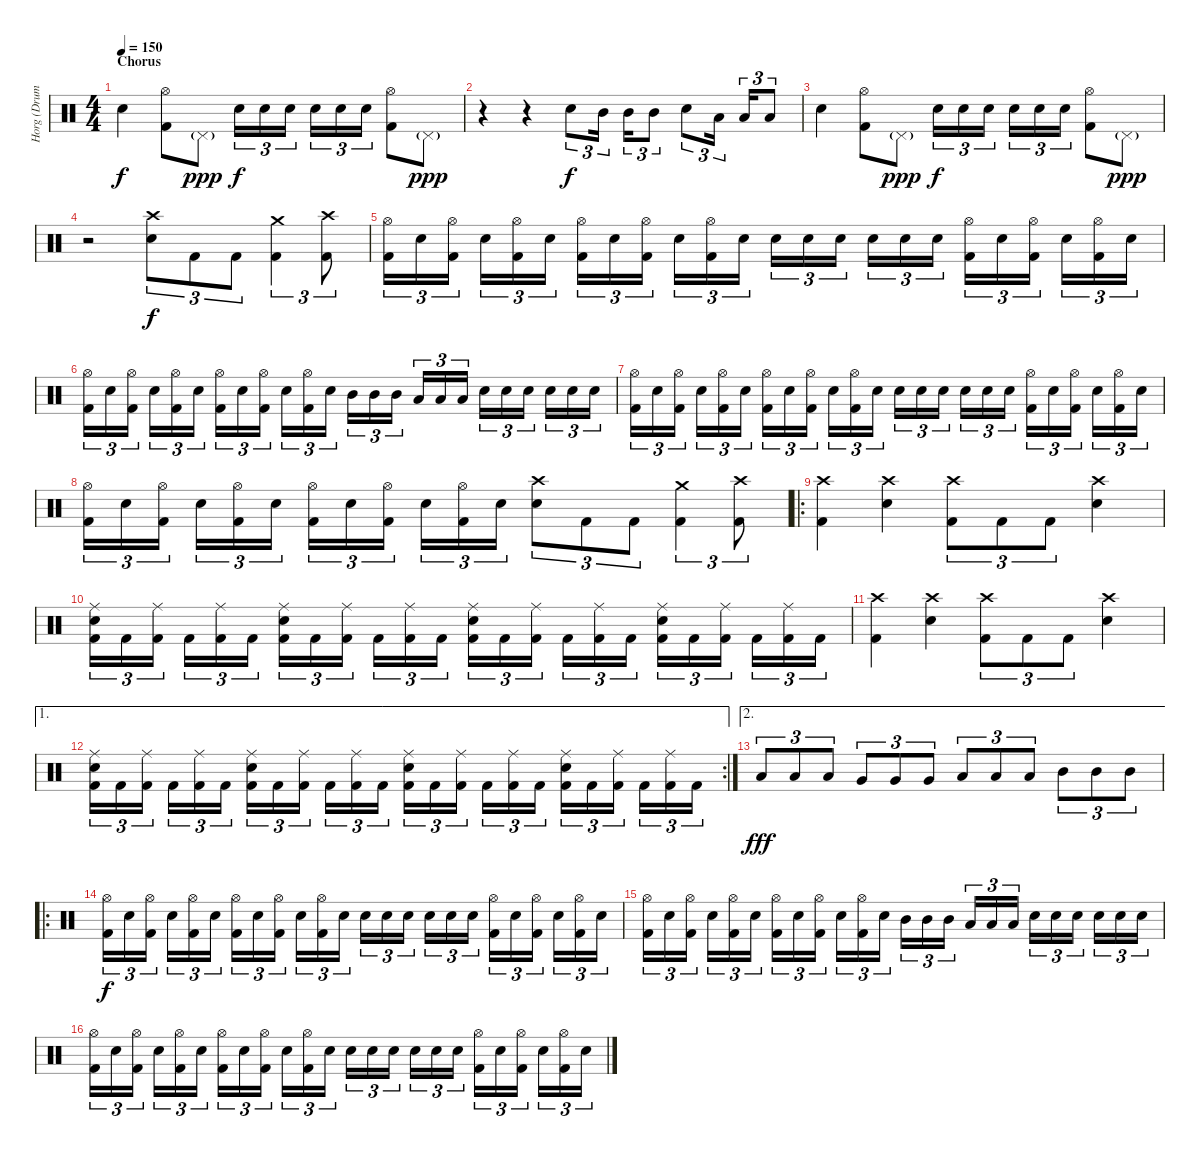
\track ("Horg (Drums)" "Horg (Drum") {instrument percussion}
\staff {score}
\articulation defaults
\ts (4 4)
\section ("" "Chorus")
\tempo 150
\clef neutral
\ks c "Electric Snare (hit)".4{dy f}
("Hi-Hat (open)" "Kick (hit) 2").8 "Pedal Hi-Hat (hit)"{g}.8{dy ppp} "Electric Snare (hit)".16{tu (3 2) dy f} "Electric Snare (hit)".16{tu (3 2)} "Electric Snare (hit)".16{tu (3 2)} "Electric Snare (hit)".16{tu (3 2)} "Electric Snare (hit)".16{tu (3 2)} "Electric Snare (hit)".16{tu (3 2)} ("Hi-Hat (open)" "Kick (hit) 2").8 "Pedal Hi-Hat (hit)"{g}.8{dy ppp} |
r.4 r.4 "Electric Snare (hit)".8{tu (3 2) dy f} "Mid Tom (hit)".16{tu (3 2)} "Mid Tom (hit)".16{tu (3 2)} "Mid Tom (hit)".8{tu (3 2)} "Electric Snare (hit)".8{tu (3 2)} "Low Tom (hit)".16{tu (3 2)} "Low Tom (hit)".16{tu (3 2)} "Low Tom (hit)".8{tu (3 2)} |
"Electric Snare (hit)".4 ("Hi-Hat (open)" "Kick (hit) 2").8 "Pedal Hi-Hat (hit)"{g}.8{dy ppp} "Electric Snare (hit)".16{tu (3 2) dy f} "Electric Snare (hit)".16{tu (3 2)} "Electric Snare (hit)".16{tu (3 2)} "Electric Snare (hit)".16{tu (3 2)} "Electric Snare (hit)".16{tu (3 2)} "Electric Snare (hit)".16{tu (3 2)} ("Hi-Hat (open)" "Kick (hit) 2").8 "Pedal Hi-Hat (hit)"{g}.8{dy ppp} |
r.2 ("Crash high (hit)" "Electric Snare (hit)").8{tu (3 2) dy f} "Kick (hit) 2".8{tu (3 2)} "Kick (hit) 2".8{tu (3 2)} ("Crash medium (hit)" "Kick (hit) 2").4{tu (3 2)} ("Crash high (hit)" "Kick (hit) 2").8{tu (3 2)} |
("Hi-Hat (open)" "Kick (hit) 2").16{tu (3 2)} "Electric Snare (hit)".16{tu (3 2)} ("Hi-Hat (open)" "Kick (hit) 2").16{tu (3 2)} "Electric Snare (hit)".16{tu (3 2)} ("Hi-Hat (open)" "Kick (hit) 2").16{tu (3 2)} "Electric Snare (hit)".16{tu (3 2)} ("Hi-Hat (open)" "Kick (hit) 2").16{tu (3 2)} "Electric Snare (hit)".16{tu (3 2)} ("Hi-Hat (open)" "Kick (hit) 2").16{tu (3 2)} "Electric Snare (hit)".16{tu (3 2)} ("Hi-Hat (open)" "Kick (hit) 2").16{tu (3 2)} "Electric Snare (hit)".16{tu (3 2)} "Electric Snare (hit)".16{tu (3 2)} "Electric Snare (hit)".16{tu (3 2)} "Electric Snare (hit)".16{tu (3 2)} "Electric Snare (hit)".16{tu (3 2)} "Electric Snare (hit)".16{tu (3 2)} "Electric Snare (hit)".16{tu (3 2)} ("Hi-Hat (open)" "Kick (hit) 2").16{tu (3 2)} "Electric Snare (hit)".16{tu (3 2)} ("Hi-Hat (open)" "Kick (hit) 2").16{tu (3 2)} "Electric Snare (hit)".16{tu (3 2)} ("Hi-Hat (open)" "Kick (hit) 2").16{tu (3 2)} "Electric Snare (hit)".16{tu (3 2)} |
("Hi-Hat (open)" "Kick (hit) 2").16{tu (3 2)} "Electric Snare (hit)".16{tu (3 2)} ("Hi-Hat (open)" "Kick (hit) 2").16{tu (3 2)} "Electric Snare (hit)".16{tu (3 2)} ("Hi-Hat (open)" "Kick (hit) 2").16{tu (3 2)} "Electric Snare (hit)".16{tu (3 2)} ("Hi-Hat (open)" "Kick (hit) 2").16{tu (3 2)} "Electric Snare (hit)".16{tu (3 2)} ("Hi-Hat (open)" "Kick (hit) 2").16{tu (3 2)} "Electric Snare (hit)".16{tu (3 2)} ("Hi-Hat (open)" "Kick (hit) 2").16{tu (3 2)} "Electric Snare (hit)".16{tu (3 2)} "Mid Tom (hit)".16{tu (3 2)} "Mid Tom (hit)".16{tu (3 2)} "Mid Tom (hit)".16{tu (3 2)} "Low Tom (hit)".16{tu (3 2)} "Low Tom (hit)".16{tu (3 2)} "Low Tom (hit)".16{tu (3 2)} "Electric Snare (hit)".16{tu (3 2)} "Electric Snare (hit)".16{tu (3 2)} "Electric Snare (hit)".16{tu (3 2)} "Electric Snare (hit)".16{tu (3 2)} "Electric Snare (hit)".16{tu (3 2)} "Electric Snare (hit)".16{tu (3 2)} |
("Hi-Hat (open)" "Kick (hit) 2").16{tu (3 2)} "Electric Snare (hit)".16{tu (3 2)} ("Hi-Hat (open)" "Kick (hit) 2").16{tu (3 2)} "Electric Snare (hit)".16{tu (3 2)} ("Hi-Hat (open)" "Kick (hit) 2").16{tu (3 2)} "Electric Snare (hit)".16{tu (3 2)} ("Hi-Hat (open)" "Kick (hit) 2").16{tu (3 2)} "Electric Snare (hit)".16{tu (3 2)} ("Hi-Hat (open)" "Kick (hit) 2").16{tu (3 2)} "Electric Snare (hit)".16{tu (3 2)} ("Hi-Hat (open)" "Kick (hit) 2").16{tu (3 2)} "Electric Snare (hit)".16{tu (3 2)} "Electric Snare (hit)".16{tu (3 2)} "Electric Snare (hit)".16{tu (3 2)} "Electric Snare (hit)".16{tu (3 2)} "Electric Snare (hit)".16{tu (3 2)} "Electric Snare (hit)".16{tu (3 2)} "Electric Snare (hit)".16{tu (3 2)} ("Hi-Hat (open)" "Kick (hit) 2").16{tu (3 2)} "Electric Snare (hit)".16{tu (3 2)} ("Hi-Hat (open)" "Kick (hit) 2").16{tu (3 2)} "Electric Snare (hit)".16{tu (3 2)} ("Hi-Hat (open)" "Kick (hit) 2").16{tu (3 2)} "Electric Snare (hit)".16{tu (3 2)} |
("Hi-Hat (open)" "Kick (hit) 2").16{tu (3 2)} "Electric Snare (hit)".16{tu (3 2)} ("Hi-Hat (open)" "Kick (hit) 2").16{tu (3 2)} "Electric Snare (hit)".16{tu (3 2)} ("Hi-Hat (open)" "Kick (hit) 2").16{tu (3 2)} "Electric Snare (hit)".16{tu (3 2)} ("Hi-Hat (open)" "Kick (hit) 2").16{tu (3 2)} "Electric Snare (hit)".16{tu (3 2)} ("Hi-Hat (open)" "Kick (hit) 2").16{tu (3 2)} "Electric Snare (hit)".16{tu (3 2)} ("Hi-Hat (open)" "Kick (hit) 2").16{tu (3 2)} "Electric Snare (hit)".16{tu (3 2)} ("Crash high (hit)" "Electric Snare (hit)").8{tu (3 2)} "Kick (hit) 2".8{tu (3 2)} "Kick (hit) 2".8{tu (3 2)} ("Crash medium (hit)" "Kick (hit) 2").4{tu (3 2)} ("Crash high (hit)" "Kick (hit) 2").8{tu (3 2)} |
\ro
("Crash high (hit)" "Kick (hit) 2").4 ("Crash high (hit)" "Electric Snare (hit)").4 ("Crash high (hit)" "Kick (hit) 2").8{tu (3 2)} "Kick (hit) 2".8{tu (3 2)} "Kick (hit) 2".8{tu (3 2)} ("Crash high (hit)" "Electric Snare (hit)").4 |
("Ride (middle)" "Electric Snare (hit)" "Kick (hit) 2").16{tu (3 2)} "Kick (hit) 2".16{tu (3 2)} ("Ride (middle)" "Kick (hit) 2").16{tu (3 2)} "Kick (hit) 2".16{tu (3 2)} ("Ride (middle)" "Kick (hit) 2").16{tu (3 2)} "Kick (hit) 2".16{tu (3 2)} ("Ride (middle)" "Electric Snare (hit)" "Kick (hit) 2").16{tu (3 2)} "Kick (hit) 2".16{tu (3 2)} ("Ride (middle)" "Kick (hit) 2").16{tu (3 2)} "Kick (hit) 2".16{tu (3 2)} ("Ride (middle)" "Kick (hit) 2").16{tu (3 2)} "Kick (hit) 2".16{tu (3 2)} ("Ride (middle)" "Electric Snare (hit)" "Kick (hit) 2").16{tu (3 2)} "Kick (hit) 2".16{tu (3 2)} ("Ride (middle)" "Kick (hit) 2").16{tu (3 2)} "Kick (hit) 2".16{tu (3 2)} ("Ride (middle)" "Kick (hit) 2").16{tu (3 2)} "Kick (hit) 2".16{tu (3 2)} ("Ride (middle)" "Electric Snare (hit)" "Kick (hit) 2").16{tu (3 2)} "Kick (hit) 2".16{tu (3 2)} ("Ride (middle)" "Kick (hit) 2").16{tu (3 2)} "Kick (hit) 2".16{tu (3 2)} ("Ride (middle)" "Kick (hit) 2").16{tu (3 2)} "Kick (hit) 2".16{tu (3 2)} |
("Crash high (hit)" "Kick (hit) 2").4 ("Crash high (hit)" "Electric Snare (hit)").4 ("Crash high (hit)" "Kick (hit) 2").8{tu (3 2)} "Kick (hit) 2".8{tu (3 2)} "Kick (hit) 2".8{tu (3 2)} ("Crash high (hit)" "Electric Snare (hit)").4 |
\ae 1
\rc 2
("Ride (middle)" "Electric Snare (hit)" "Kick (hit) 2").16{tu (3 2)} "Kick (hit) 2".16{tu (3 2)} ("Ride (middle)" "Kick (hit) 2").16{tu (3 2)} "Kick (hit) 2".16{tu (3 2)} ("Ride (middle)" "Kick (hit) 2").16{tu (3 2)} "Kick (hit) 2".16{tu (3 2)} ("Ride (middle)" "Electric Snare (hit)" "Kick (hit) 2").16{tu (3 2)} "Kick (hit) 2".16{tu (3 2)} ("Ride (middle)" "Kick (hit) 2").16{tu (3 2)} "Kick (hit) 2".16{tu (3 2)} ("Ride (middle)" "Kick (hit) 2").16{tu (3 2)} "Kick (hit) 2".16{tu (3 2)} ("Ride (middle)" "Electric Snare (hit)" "Kick (hit) 2").16{tu (3 2)} "Kick (hit) 2".16{tu (3 2)} ("Ride (middle)" "Kick (hit) 2").16{tu (3 2)} "Kick (hit) 2".16{tu (3 2)} ("Ride (middle)" "Kick (hit) 2").16{tu (3 2)} "Kick (hit) 2".16{tu (3 2)} ("Ride (middle)" "Electric Snare (hit)" "Kick (hit) 2").16{tu (3 2)} "Kick (hit) 2".16{tu (3 2)} ("Ride (middle)" "Kick (hit) 2").16{tu (3 2)} "Kick (hit) 2".16{tu (3 2)} ("Ride (middle)" "Kick (hit) 2").16{tu (3 2)} "Kick (hit) 2".16{tu (3 2)} |
\ae 2 "Low Floor Tom (hit)".8{tu (3 2) dy fff} "Low Floor Tom (hit)".8{tu (3 2)} "Low Floor Tom (hit)".8{tu (3 2)} "Very Low Tom (hit)".8{tu (3 2)} "Very Low Tom (hit)".8{tu (3 2)} "Very Low Tom (hit)".8{tu (3 2)} "Low Tom (hit)".8{tu (3 2)} "Low Tom (hit)".8{tu (3 2)} "Low Tom (hit)".8{tu (3 2)} "Mid Tom (hit)".8{tu (3 2)} "Mid Tom (hit)".8{tu (3 2)} "Mid Tom (hit)".8{tu (3 2)}
|
\ro
("Hi-Hat (open)" "Kick (hit) 2").16{tu (3 2) dy f} "Electric Snare (hit)".16{tu (3 2)} ("Hi-Hat (open)" "Kick (hit) 2").16{tu (3 2)} "Electric Snare (hit)".16{tu (3 2)} ("Hi-Hat (open)" "Kick (hit) 2").16{tu (3 2)} "Electric Snare (hit)".16{tu (3 2)} ("Hi-Hat (open)" "Kick (hit) 2").16{tu (3 2)} "Electric Snare (hit)".16{tu (3 2)} ("Hi-Hat (open)" "Kick (hit) 2").16{tu (3 2)} "Electric Snare (hit)".16{tu (3 2)} ("Hi-Hat (open)" "Kick (hit) 2").16{tu (3 2)} "Electric Snare (hit)".16{tu (3 2)} "Electric Snare (hit)".16{tu (3 2)} "Electric Snare (hit)".16{tu (3 2)} "Electric Snare (hit)".16{tu (3 2)} "Electric Snare (hit)".16{tu (3 2)} "Electric Snare (hit)".16{tu (3 2)} "Electric Snare (hit)".16{tu (3 2)} ("Hi-Hat (open)" "Kick (hit) 2").16{tu (3 2)} "Electric Snare (hit)".16{tu (3 2)} ("Hi-Hat (open)" "Kick (hit) 2").16{tu (3 2)} "Electric Snare (hit)".16{tu (3 2)} ("Hi-Hat (open)" "Kick (hit) 2").16{tu (3 2)} "Electric Snare (hit)".16{tu (3 2)} |
("Hi-Hat (open)" "Kick (hit) 2").16{tu (3 2)} "Electric Snare (hit)".16{tu (3 2)} ("Hi-Hat (open)" "Kick (hit) 2").16{tu (3 2)} "Electric Snare (hit)".16{tu (3 2)} ("Hi-Hat (open)" "Kick (hit) 2").16{tu (3 2)} "Electric Snare (hit)".16{tu (3 2)} ("Hi-Hat (open)" "Kick (hit) 2").16{tu (3 2)} "Electric Snare (hit)".16{tu (3 2)} ("Hi-Hat (open)" "Kick (hit) 2").16{tu (3 2)} "Electric Snare (hit)".16{tu (3 2)} ("Hi-Hat (open)" "Kick (hit) 2").16{tu (3 2)} "Electric Snare (hit)".16{tu (3 2)} "Mid Tom (hit)".16{tu (3 2)} "Mid Tom (hit)".16{tu (3 2)} "Mid Tom (hit)".16{tu (3 2)} "Low Tom (hit)".16{tu (3 2)} "Low Tom (hit)".16{tu (3 2)} "Low Tom (hit)".16{tu (3 2)} "Electric Snare (hit)".16{tu (3 2)} "Electric Snare (hit)".16{tu (3 2)} "Electric Snare (hit)".16{tu (3 2)} "Electric Snare (hit)".16{tu (3 2)} "Electric Snare (hit)".16{tu (3 2)} "Electric Snare (hit)".16{tu (3 2)} |
("Hi-Hat (open)" "Kick (hit) 2").16{tu (3 2)} "Electric Snare (hit)".16{tu (3 2)} ("Hi-Hat (open)" "Kick (hit) 2").16{tu (3 2)} "Electric Snare (hit)".16{tu (3 2)} ("Hi-Hat (open)" "Kick (hit) 2").16{tu (3 2)} "Electric Snare (hit)".16{tu (3 2)} ("Hi-Hat (open)" "Kick (hit) 2").16{tu (3 2)} "Electric Snare (hit)".16{tu (3 2)} ("Hi-Hat (open)" "Kick (hit) 2").16{tu (3 2)} "Electric Snare (hit)".16{tu (3 2)} ("Hi-Hat (open)" "Kick (hit) 2").16{tu (3 2)} "Electric Snare (hit)".16{tu (3 2)} "Electric Snare (hit)".16{tu (3 2)} "Electric Snare (hit)".16{tu (3 2)} "Electric Snare (hit)".16{tu (3 2)} "Electric Snare (hit)".16{tu (3 2)} "Electric Snare (hit)".16{tu (3 2)} "Electric Snare (hit)".16{tu (3 2)} ("Hi-Hat (open)" "Kick (hit) 2").16{tu (3 2)} "Electric Snare (hit)".16{tu (3 2)} ("Hi-Hat (open)" "Kick (hit) 2").16{tu (3 2)} "Electric Snare (hit)".16{tu (3 2)} ("Hi-Hat (open)" "Kick (hit) 2").16{tu (3 2)} "Electric Snare (hit)".16{tu (3 2)}
